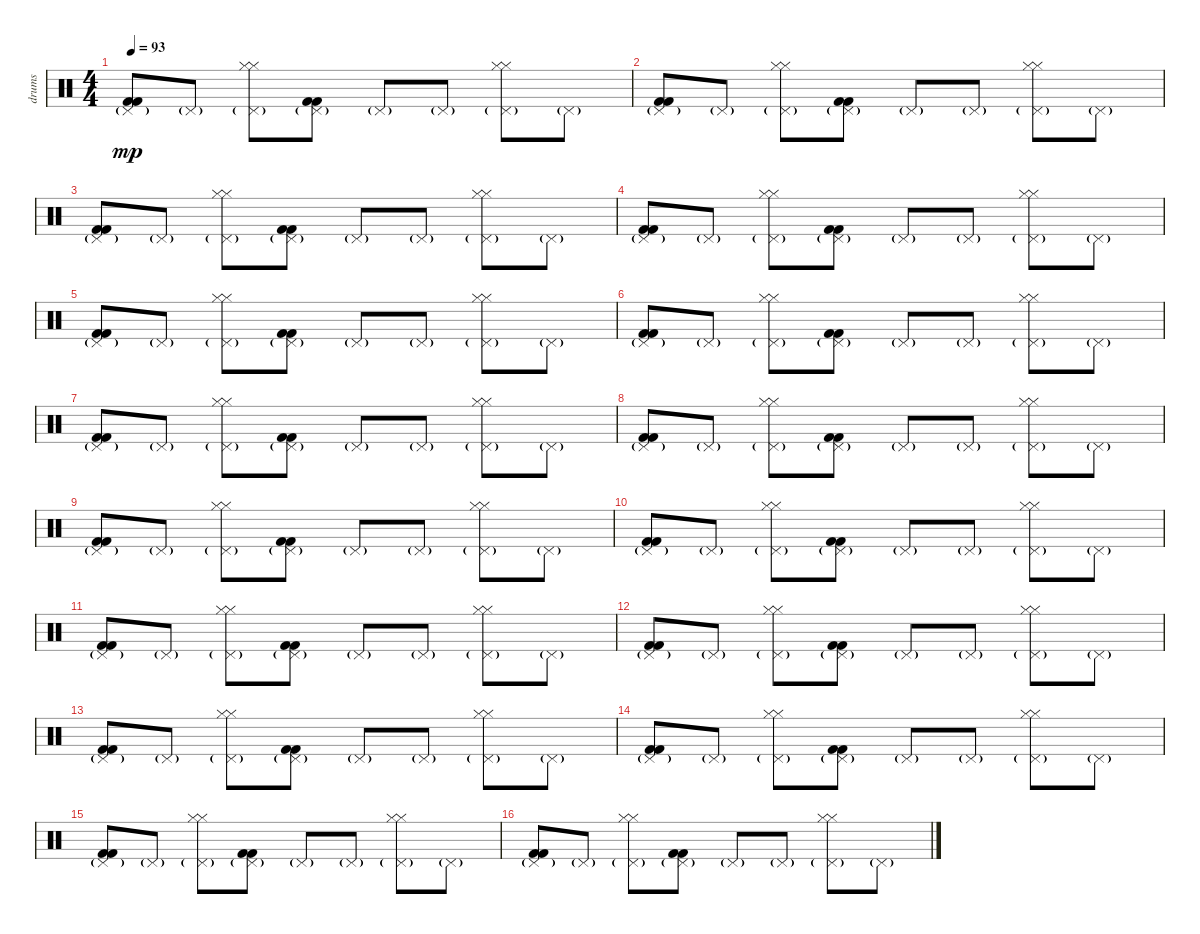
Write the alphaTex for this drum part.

\track ("drums" "drums") {instrument percussion}
\staff {score}
\articulation defaults
\ts (4 4)
\tempo 93
\clef neutral
\ks c
("Kick (hit) 2" "Kick (hit) 2" "Pedal Hi-Hat (hit)"{g}).8{dy mp} "Pedal Hi-Hat (hit)"{g}.8 ("Hi-Hat (closed)" "Hi-Hat (closed)" "Pedal Hi-Hat (hit)"{g}).8 ("Kick (hit) 2" "Kick (hit) 2" "Pedal Hi-Hat (hit)"{g}).8 "Pedal Hi-Hat (hit)"{g}.8 "Pedal Hi-Hat (hit)"{g}.8 ("Hi-Hat (closed)" "Hi-Hat (closed)" "Pedal Hi-Hat (hit)"{g}).8 "Pedal Hi-Hat (hit)"{g}.8 |
("Kick (hit) 2" "Kick (hit) 2" "Pedal Hi-Hat (hit)"{g}).8 "Pedal Hi-Hat (hit)"{g}.8 ("Hi-Hat (closed)" "Hi-Hat (closed)" "Pedal Hi-Hat (hit)"{g}).8 ("Kick (hit) 2" "Kick (hit) 2" "Pedal Hi-Hat (hit)"{g}).8 "Pedal Hi-Hat (hit)"{g}.8 "Pedal Hi-Hat (hit)"{g}.8 ("Hi-Hat (closed)" "Hi-Hat (closed)" "Pedal Hi-Hat (hit)"{g}).8 "Pedal Hi-Hat (hit)"{g}.8 |
("Kick (hit) 2" "Kick (hit) 2" "Pedal Hi-Hat (hit)"{g}).8 "Pedal Hi-Hat (hit)"{g}.8 ("Hi-Hat (closed)" "Hi-Hat (closed)" "Pedal Hi-Hat (hit)"{g}).8 ("Kick (hit) 2" "Kick (hit) 2" "Pedal Hi-Hat (hit)"{g}).8 "Pedal Hi-Hat (hit)"{g}.8 "Pedal Hi-Hat (hit)"{g}.8 ("Hi-Hat (closed)" "Hi-Hat (closed)" "Pedal Hi-Hat (hit)"{g}).8 "Pedal Hi-Hat (hit)"{g}.8 |
("Kick (hit) 2" "Kick (hit) 2" "Pedal Hi-Hat (hit)"{g}).8 "Pedal Hi-Hat (hit)"{g}.8 ("Hi-Hat (closed)" "Hi-Hat (closed)" "Pedal Hi-Hat (hit)"{g}).8 ("Kick (hit) 2" "Kick (hit) 2" "Pedal Hi-Hat (hit)"{g}).8 "Pedal Hi-Hat (hit)"{g}.8 "Pedal Hi-Hat (hit)"{g}.8 ("Hi-Hat (closed)" "Hi-Hat (closed)" "Pedal Hi-Hat (hit)"{g}).8 "Pedal Hi-Hat (hit)"{g}.8 |
("Kick (hit) 2" "Kick (hit) 2" "Pedal Hi-Hat (hit)"{g}).8 "Pedal Hi-Hat (hit)"{g}.8 ("Hi-Hat (closed)" "Hi-Hat (closed)" "Pedal Hi-Hat (hit)"{g}).8 ("Kick (hit) 2" "Kick (hit) 2" "Pedal Hi-Hat (hit)"{g}).8 "Pedal Hi-Hat (hit)"{g}.8 "Pedal Hi-Hat (hit)"{g}.8 ("Hi-Hat (closed)" "Hi-Hat (closed)" "Pedal Hi-Hat (hit)"{g}).8 "Pedal Hi-Hat (hit)"{g}.8 |
("Kick (hit) 2" "Kick (hit) 2" "Pedal Hi-Hat (hit)"{g}).8 "Pedal Hi-Hat (hit)"{g}.8 ("Hi-Hat (closed)" "Hi-Hat (closed)" "Pedal Hi-Hat (hit)"{g}).8 ("Kick (hit) 2" "Kick (hit) 2" "Pedal Hi-Hat (hit)"{g}).8 "Pedal Hi-Hat (hit)"{g}.8 "Pedal Hi-Hat (hit)"{g}.8 ("Hi-Hat (closed)" "Hi-Hat (closed)" "Pedal Hi-Hat (hit)"{g}).8 "Pedal Hi-Hat (hit)"{g}.8 |
("Kick (hit) 2" "Kick (hit) 2" "Pedal Hi-Hat (hit)"{g}).8 "Pedal Hi-Hat (hit)"{g}.8 ("Hi-Hat (closed)" "Hi-Hat (closed)" "Pedal Hi-Hat (hit)"{g}).8 ("Kick (hit) 2" "Kick (hit) 2" "Pedal Hi-Hat (hit)"{g}).8 "Pedal Hi-Hat (hit)"{g}.8 "Pedal Hi-Hat (hit)"{g}.8 ("Hi-Hat (closed)" "Hi-Hat (closed)" "Pedal Hi-Hat (hit)"{g}).8 "Pedal Hi-Hat (hit)"{g}.8 |
("Kick (hit) 2" "Kick (hit) 2" "Pedal Hi-Hat (hit)"{g}).8 "Pedal Hi-Hat (hit)"{g}.8 ("Hi-Hat (closed)" "Hi-Hat (closed)" "Pedal Hi-Hat (hit)"{g}).8 ("Kick (hit) 2" "Kick (hit) 2" "Pedal Hi-Hat (hit)"{g}).8 "Pedal Hi-Hat (hit)"{g}.8 "Pedal Hi-Hat (hit)"{g}.8 ("Hi-Hat (closed)" "Hi-Hat (closed)" "Pedal Hi-Hat (hit)"{g}).8 "Pedal Hi-Hat (hit)"{g}.8 |
("Kick (hit) 2" "Kick (hit) 2" "Pedal Hi-Hat (hit)"{g}).8 "Pedal Hi-Hat (hit)"{g}.8 ("Hi-Hat (closed)" "Hi-Hat (closed)" "Pedal Hi-Hat (hit)"{g}).8 ("Kick (hit) 2" "Kick (hit) 2" "Pedal Hi-Hat (hit)"{g}).8 "Pedal Hi-Hat (hit)"{g}.8 "Pedal Hi-Hat (hit)"{g}.8 ("Hi-Hat (closed)" "Hi-Hat (closed)" "Pedal Hi-Hat (hit)"{g}).8 "Pedal Hi-Hat (hit)"{g}.8 |
("Kick (hit) 2" "Kick (hit) 2" "Pedal Hi-Hat (hit)"{g}).8 "Pedal Hi-Hat (hit)"{g}.8 ("Hi-Hat (closed)" "Hi-Hat (closed)" "Pedal Hi-Hat (hit)"{g}).8 ("Kick (hit) 2" "Kick (hit) 2" "Pedal Hi-Hat (hit)"{g}).8 "Pedal Hi-Hat (hit)"{g}.8 "Pedal Hi-Hat (hit)"{g}.8 ("Hi-Hat (closed)" "Hi-Hat (closed)" "Pedal Hi-Hat (hit)"{g}).8 "Pedal Hi-Hat (hit)"{g}.8 |
("Kick (hit) 2" "Kick (hit) 2" "Pedal Hi-Hat (hit)"{g}).8 "Pedal Hi-Hat (hit)"{g}.8 ("Hi-Hat (closed)" "Hi-Hat (closed)" "Pedal Hi-Hat (hit)"{g}).8 ("Kick (hit) 2" "Kick (hit) 2" "Pedal Hi-Hat (hit)"{g}).8 "Pedal Hi-Hat (hit)"{g}.8 "Pedal Hi-Hat (hit)"{g}.8 ("Hi-Hat (closed)" "Hi-Hat (closed)" "Pedal Hi-Hat (hit)"{g}).8 "Pedal Hi-Hat (hit)"{g}.8 |
("Kick (hit) 2" "Kick (hit) 2" "Pedal Hi-Hat (hit)"{g}).8 "Pedal Hi-Hat (hit)"{g}.8 ("Hi-Hat (closed)" "Hi-Hat (closed)" "Pedal Hi-Hat (hit)"{g}).8 ("Kick (hit) 2" "Kick (hit) 2" "Pedal Hi-Hat (hit)"{g}).8 "Pedal Hi-Hat (hit)"{g}.8 "Pedal Hi-Hat (hit)"{g}.8 ("Hi-Hat (closed)" "Hi-Hat (closed)" "Pedal Hi-Hat (hit)"{g}).8 "Pedal Hi-Hat (hit)"{g}.8 |
("Kick (hit) 2" "Kick (hit) 2" "Pedal Hi-Hat (hit)"{g}).8 "Pedal Hi-Hat (hit)"{g}.8 ("Hi-Hat (closed)" "Hi-Hat (closed)" "Pedal Hi-Hat (hit)"{g}).8 ("Kick (hit) 2" "Kick (hit) 2" "Pedal Hi-Hat (hit)"{g}).8 "Pedal Hi-Hat (hit)"{g}.8 "Pedal Hi-Hat (hit)"{g}.8 ("Hi-Hat (closed)" "Hi-Hat (closed)" "Pedal Hi-Hat (hit)"{g}).8 "Pedal Hi-Hat (hit)"{g}.8 |
("Kick (hit) 2" "Kick (hit) 2" "Pedal Hi-Hat (hit)"{g}).8 "Pedal Hi-Hat (hit)"{g}.8 ("Hi-Hat (closed)" "Hi-Hat (closed)" "Pedal Hi-Hat (hit)"{g}).8 ("Kick (hit) 2" "Kick (hit) 2" "Pedal Hi-Hat (hit)"{g}).8 "Pedal Hi-Hat (hit)"{g}.8 "Pedal Hi-Hat (hit)"{g}.8 ("Hi-Hat (closed)" "Hi-Hat (closed)" "Pedal Hi-Hat (hit)"{g}).8 "Pedal Hi-Hat (hit)"{g}.8 |
("Kick (hit) 2" "Kick (hit) 2" "Pedal Hi-Hat (hit)"{g}).8 "Pedal Hi-Hat (hit)"{g}.8 ("Hi-Hat (closed)" "Hi-Hat (closed)" "Pedal Hi-Hat (hit)"{g}).8 ("Kick (hit) 2" "Kick (hit) 2" "Pedal Hi-Hat (hit)"{g}).8 "Pedal Hi-Hat (hit)"{g}.8 "Pedal Hi-Hat (hit)"{g}.8 ("Hi-Hat (closed)" "Hi-Hat (closed)" "Pedal Hi-Hat (hit)"{g}).8 "Pedal Hi-Hat (hit)"{g}.8 |
("Kick (hit) 2" "Kick (hit) 2" "Pedal Hi-Hat (hit)"{g}).8 "Pedal Hi-Hat (hit)"{g}.8 ("Hi-Hat (closed)" "Hi-Hat (closed)" "Pedal Hi-Hat (hit)"{g}).8 ("Kick (hit) 2" "Kick (hit) 2" "Pedal Hi-Hat (hit)"{g}).8 "Pedal Hi-Hat (hit)"{g}.8 "Pedal Hi-Hat (hit)"{g}.8 ("Hi-Hat (closed)" "Hi-Hat (closed)" "Pedal Hi-Hat (hit)"{g}).8 "Pedal Hi-Hat (hit)"{g}.8
